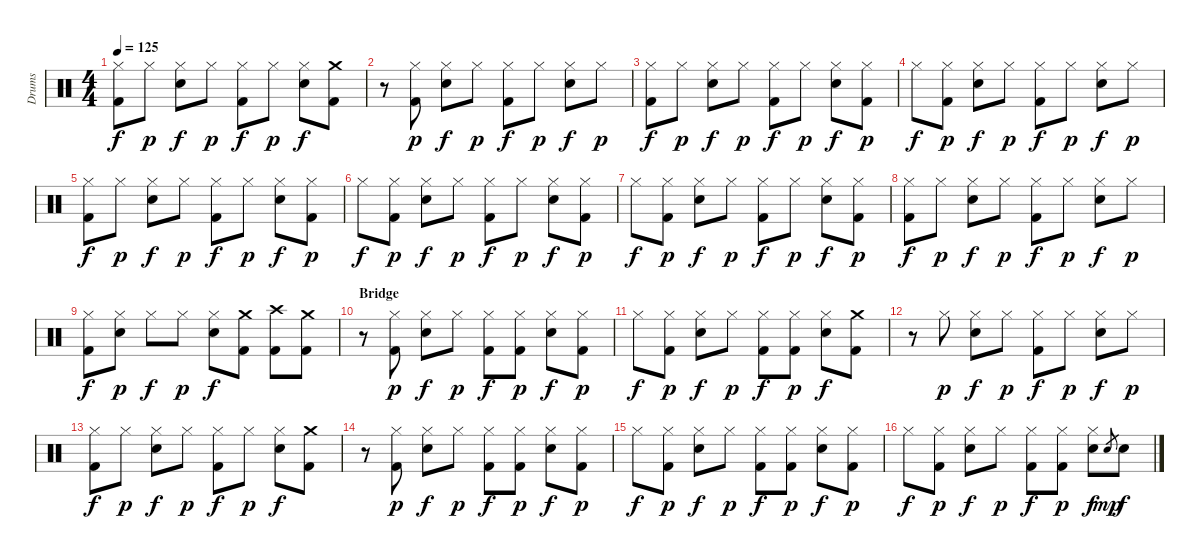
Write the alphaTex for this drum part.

\track ("Drums" "Drums") {instrument percussion}
\staff {score}
\articulation defaults
\ts (4 4)
\tempo 125
\clef neutral
\ks c
("Hi-Hat (closed)" "Kick (hit) 2").8{dy f} "Hi-Hat (closed)".8{dy p} ("Hi-Hat (closed)" "Snare (hit) 2").8{dy f} "Hi-Hat (closed)".8{dy p} ("Hi-Hat (closed)" "Kick (hit) 2").8{dy f} "Hi-Hat (closed)".8{dy p} ("Hi-Hat (closed)" "Snare (hit) 2").8{dy f} ("Crash medium (hit)" "Kick (hit) 2").8 |
r.8 ("Hi-Hat (closed)" "Kick (hit) 2").8{dy p} ("Hi-Hat (closed)" "Snare (hit) 2").8{dy f} "Hi-Hat (closed)".8{dy p} ("Hi-Hat (closed)" "Kick (hit) 2").8{dy f} "Hi-Hat (closed)".8{dy p} ("Hi-Hat (closed)" "Snare (hit) 2").8{dy f} "Hi-Hat (closed)".8{dy p} |
("Hi-Hat (closed)" "Kick (hit) 2").8{dy f} "Hi-Hat (closed)".8{dy p} ("Hi-Hat (closed)" "Snare (hit) 2").8{dy f} "Hi-Hat (closed)".8{dy p} ("Hi-Hat (closed)" "Kick (hit) 2").8{dy f} "Hi-Hat (closed)".8{dy p} ("Hi-Hat (closed)" "Snare (hit) 2").8{dy f} ("Hi-Hat (closed)" "Kick (hit) 2").8{dy p} |
"Hi-Hat (closed)".8{dy f} ("Hi-Hat (closed)" "Kick (hit) 2").8{dy p} ("Hi-Hat (closed)" "Snare (hit) 2").8{dy f} "Hi-Hat (closed)".8{dy p} ("Hi-Hat (closed)" "Kick (hit) 2").8{dy f} "Hi-Hat (closed)".8{dy p} ("Hi-Hat (closed)" "Snare (hit) 2").8{dy f} "Hi-Hat (closed)".8{dy p} |
("Hi-Hat (closed)" "Kick (hit) 2").8{dy f} "Hi-Hat (closed)".8{dy p} ("Hi-Hat (closed)" "Snare (hit) 2").8{dy f} "Hi-Hat (closed)".8{dy p} ("Hi-Hat (closed)" "Kick (hit) 2").8{dy f} "Hi-Hat (closed)".8{dy p} ("Hi-Hat (closed)" "Snare (hit) 2").8{dy f} ("Hi-Hat (closed)" "Kick (hit) 2").8{dy p} |
"Hi-Hat (closed)".8{dy f} ("Hi-Hat (closed)" "Kick (hit) 2").8{dy p} ("Hi-Hat (closed)" "Snare (hit) 2").8{dy f} "Hi-Hat (closed)".8{dy p} ("Hi-Hat (closed)" "Kick (hit) 2").8{dy f} "Hi-Hat (closed)".8{dy p} ("Hi-Hat (closed)" "Snare (hit) 2").8{dy f} ("Hi-Hat (closed)" "Kick (hit) 2").8{dy p} |
"Hi-Hat (closed)".8{dy f} ("Hi-Hat (closed)" "Kick (hit) 2").8{dy p} ("Hi-Hat (closed)" "Snare (hit) 2").8{dy f} "Hi-Hat (closed)".8{dy p} ("Hi-Hat (closed)" "Kick (hit) 2").8{dy f} "Hi-Hat (closed)".8{dy p} ("Hi-Hat (closed)" "Snare (hit) 2").8{dy f} ("Hi-Hat (closed)" "Kick (hit) 2").8{dy p} |
("Hi-Hat (closed)" "Kick (hit) 2").8{dy f} "Hi-Hat (closed)".8{dy p} ("Hi-Hat (closed)" "Snare (hit) 2").8{dy f} "Hi-Hat (closed)".8{dy p} ("Hi-Hat (closed)" "Kick (hit) 2").8{dy f} "Hi-Hat (closed)".8{dy p} ("Hi-Hat (closed)" "Snare (hit) 2").8{dy f} "Hi-Hat (closed)".8{dy p} |
("Hi-Hat (closed)" "Kick (hit) 2").8{dy f} ("Hi-Hat (closed)" "Snare (hit) 2").8{dy p} "Hi-Hat (closed)".8{dy f} "Hi-Hat (closed)".8{dy p} ("Hi-Hat (closed)" "Snare (hit) 2").8{dy f} ("Crash medium (hit)" "Kick (hit) 2").8 ("Crash high (hit)" "Kick (hit) 2").8 ("Crash medium (hit)" "Kick (hit) 2").8 |
\section ("" "Bridge")
r.8 ("Hi-Hat (closed)" "Kick (hit) 2").8{dy p} ("Hi-Hat (closed)" "Snare (hit) 2").8{dy f} "Hi-Hat (closed)".8{dy p} ("Hi-Hat (closed)" "Kick (hit) 2").8{dy f} ("Hi-Hat (closed)" "Kick (hit) 2").8{dy p} ("Hi-Hat (closed)" "Snare (hit) 2").8{dy f} ("Hi-Hat (closed)" "Kick (hit) 2").8{dy p} |
"Hi-Hat (closed)".8{dy f} ("Hi-Hat (closed)" "Kick (hit) 2").8{dy p} ("Hi-Hat (closed)" "Snare (hit) 2").8{dy f} "Hi-Hat (closed)".8{dy p} ("Hi-Hat (closed)" "Kick (hit) 2").8{dy f} ("Hi-Hat (closed)" "Kick (hit) 2").8{dy p} ("Hi-Hat (closed)" "Snare (hit) 2").8{dy f} ("Crash medium (hit)" "Kick (hit) 2").8 |
r.8 "Hi-Hat (closed)".8{dy p} ("Hi-Hat (closed)" "Snare (hit) 2").8{dy f} "Hi-Hat (closed)".8{dy p} ("Hi-Hat (closed)" "Kick (hit) 2").8{dy f} "Hi-Hat (closed)".8{dy p} ("Hi-Hat (closed)" "Snare (hit) 2").8{dy f} "Hi-Hat (closed)".8{dy p} |
("Hi-Hat (closed)" "Kick (hit) 2").8{dy f} "Hi-Hat (closed)".8{dy p} ("Hi-Hat (closed)" "Snare (hit) 2").8{dy f} "Hi-Hat (closed)".8{dy p} ("Hi-Hat (closed)" "Kick (hit) 2").8{dy f} "Hi-Hat (closed)".8{dy p} ("Hi-Hat (closed)" "Snare (hit) 2").8{dy f} ("Crash medium (hit)" "Kick (hit) 2").8 |
r.8 ("Hi-Hat (closed)" "Kick (hit) 2").8{dy p} ("Hi-Hat (closed)" "Snare (hit) 2").8{dy f} "Hi-Hat (closed)".8{dy p} ("Hi-Hat (closed)" "Kick (hit) 2").8{dy f} ("Hi-Hat (closed)" "Kick (hit) 2").8{dy p} ("Hi-Hat (closed)" "Snare (hit) 2").8{dy f} ("Hi-Hat (closed)" "Kick (hit) 2").8{dy p} |
"Hi-Hat (closed)".8{dy f} ("Hi-Hat (closed)" "Kick (hit) 2").8{dy p} ("Hi-Hat (closed)" "Snare (hit) 2").8{dy f} "Hi-Hat (closed)".8{dy p} ("Hi-Hat (closed)" "Kick (hit) 2").8{dy f} ("Hi-Hat (closed)" "Kick (hit) 2").8{dy p} ("Hi-Hat (closed)" "Snare (hit) 2").8{dy f} ("Hi-Hat (closed)" "Kick (hit) 2").8{dy p} |
"Hi-Hat (closed)".8{dy f} ("Hi-Hat (closed)" "Kick (hit) 2").8{dy p} ("Hi-Hat (closed)" "Snare (hit) 2").8{dy f} "Hi-Hat (closed)".8{dy p} ("Hi-Hat (closed)" "Kick (hit) 2").8{dy f} ("Hi-Hat (closed)" "Kick (hit) 2").8{dy p} ("Hi-Hat (closed)" "Snare (hit) 2").8{dy f} "Snare (hit) 2".8{gr dy mp} "Snare (hit) 2".8{dy f}
